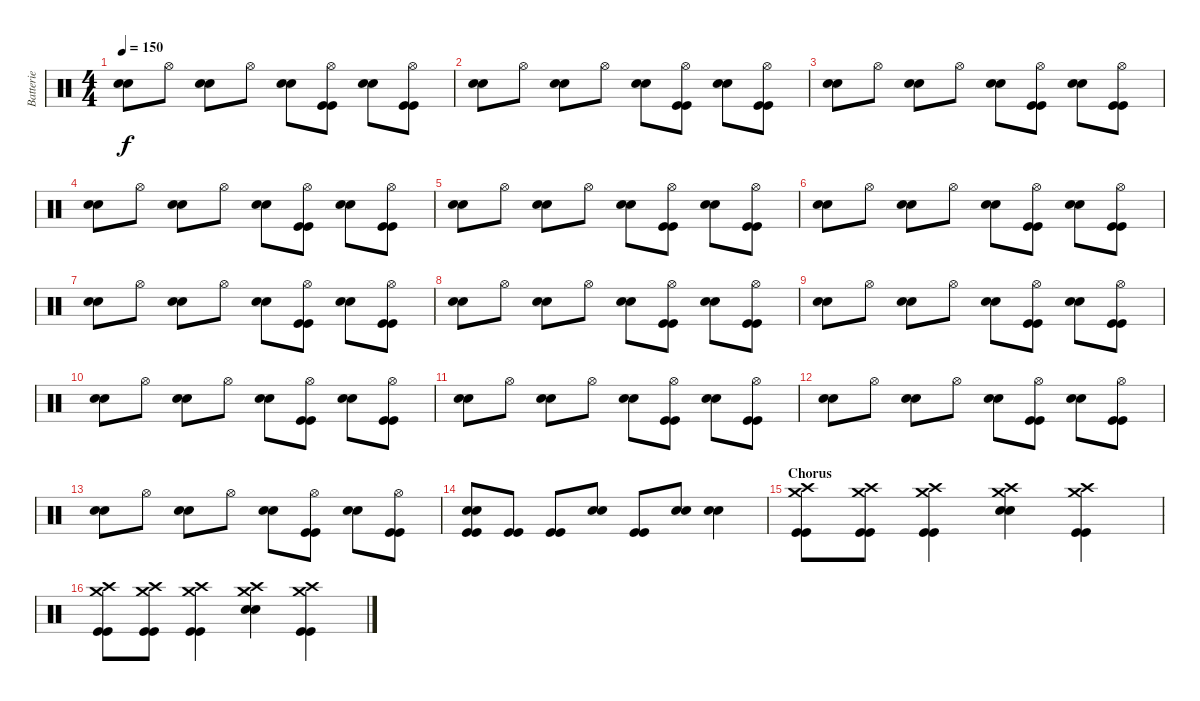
\track ("Batterie" "Batterie") {instrument percussion}
\staff {score}
\articulation defaults
\ts (4 4)
\tempo 150
\clef neutral
\ks c
("Electric Snare (hit)" "Electric Snare (hit)").8{dy f} "Hi-Hat (open)".8 ("Electric Snare (hit)" "Electric Snare (hit)").8 "Hi-Hat (open)".8 ("Electric Snare (hit)" "Electric Snare (hit)").8 ("Hi-Hat (open)" "Kick (hit)" "Kick (hit)").8 ("Electric Snare (hit)" "Electric Snare (hit)").8 ("Hi-Hat (open)" "Kick (hit)" "Kick (hit)").8 |
("Electric Snare (hit)" "Electric Snare (hit)").8 "Hi-Hat (open)".8 ("Electric Snare (hit)" "Electric Snare (hit)").8 "Hi-Hat (open)".8 ("Electric Snare (hit)" "Electric Snare (hit)").8 ("Hi-Hat (open)" "Kick (hit)" "Kick (hit)").8 ("Electric Snare (hit)" "Electric Snare (hit)").8 ("Hi-Hat (open)" "Kick (hit)" "Kick (hit)").8 |
("Electric Snare (hit)" "Electric Snare (hit)").8 "Hi-Hat (open)".8 ("Electric Snare (hit)" "Electric Snare (hit)").8 "Hi-Hat (open)".8 ("Electric Snare (hit)" "Electric Snare (hit)").8 ("Hi-Hat (open)" "Kick (hit)" "Kick (hit)").8 ("Electric Snare (hit)" "Electric Snare (hit)").8 ("Hi-Hat (open)" "Kick (hit)" "Kick (hit)").8 |
("Electric Snare (hit)" "Electric Snare (hit)").8 "Hi-Hat (open)".8 ("Electric Snare (hit)" "Electric Snare (hit)").8 "Hi-Hat (open)".8 ("Electric Snare (hit)" "Electric Snare (hit)").8 ("Hi-Hat (open)" "Kick (hit)" "Kick (hit)").8 ("Electric Snare (hit)" "Electric Snare (hit)").8 ("Hi-Hat (open)" "Kick (hit)" "Kick (hit)").8 |
("Electric Snare (hit)" "Electric Snare (hit)").8 "Hi-Hat (open)".8 ("Electric Snare (hit)" "Electric Snare (hit)").8 "Hi-Hat (open)".8 ("Electric Snare (hit)" "Electric Snare (hit)").8 ("Hi-Hat (open)" "Kick (hit)" "Kick (hit)").8 ("Electric Snare (hit)" "Electric Snare (hit)").8 ("Hi-Hat (open)" "Kick (hit)" "Kick (hit)").8 |
("Electric Snare (hit)" "Electric Snare (hit)").8 "Hi-Hat (open)".8 ("Electric Snare (hit)" "Electric Snare (hit)").8 "Hi-Hat (open)".8 ("Electric Snare (hit)" "Electric Snare (hit)").8 ("Hi-Hat (open)" "Kick (hit)" "Kick (hit)").8 ("Electric Snare (hit)" "Electric Snare (hit)").8 ("Hi-Hat (open)" "Kick (hit)" "Kick (hit)").8 |
("Electric Snare (hit)" "Electric Snare (hit)").8 "Hi-Hat (open)".8 ("Electric Snare (hit)" "Electric Snare (hit)").8 "Hi-Hat (open)".8 ("Electric Snare (hit)" "Electric Snare (hit)").8 ("Hi-Hat (open)" "Kick (hit)" "Kick (hit)").8 ("Electric Snare (hit)" "Electric Snare (hit)").8 ("Hi-Hat (open)" "Kick (hit)" "Kick (hit)").8 |
("Electric Snare (hit)" "Electric Snare (hit)").8 "Hi-Hat (open)".8 ("Electric Snare (hit)" "Electric Snare (hit)").8 "Hi-Hat (open)".8 ("Electric Snare (hit)" "Electric Snare (hit)").8 ("Hi-Hat (open)" "Kick (hit)" "Kick (hit)").8 ("Electric Snare (hit)" "Electric Snare (hit)").8 ("Hi-Hat (open)" "Kick (hit)" "Kick (hit)").8 |
("Electric Snare (hit)" "Electric Snare (hit)").8 "Hi-Hat (open)".8 ("Electric Snare (hit)" "Electric Snare (hit)").8 "Hi-Hat (open)".8 ("Electric Snare (hit)" "Electric Snare (hit)").8 ("Hi-Hat (open)" "Kick (hit)" "Kick (hit)").8 ("Electric Snare (hit)" "Electric Snare (hit)").8 ("Hi-Hat (open)" "Kick (hit)" "Kick (hit)").8 |
("Electric Snare (hit)" "Electric Snare (hit)").8 "Hi-Hat (open)".8 ("Electric Snare (hit)" "Electric Snare (hit)").8 "Hi-Hat (open)".8 ("Electric Snare (hit)" "Electric Snare (hit)").8 ("Hi-Hat (open)" "Kick (hit)" "Kick (hit)").8 ("Electric Snare (hit)" "Electric Snare (hit)").8 ("Hi-Hat (open)" "Kick (hit)" "Kick (hit)").8 |
("Electric Snare (hit)" "Electric Snare (hit)").8 "Hi-Hat (open)".8 ("Electric Snare (hit)" "Electric Snare (hit)").8 "Hi-Hat (open)".8 ("Electric Snare (hit)" "Electric Snare (hit)").8 ("Hi-Hat (open)" "Kick (hit)" "Kick (hit)").8 ("Electric Snare (hit)" "Electric Snare (hit)").8 ("Hi-Hat (open)" "Kick (hit)" "Kick (hit)").8 |
("Electric Snare (hit)" "Electric Snare (hit)").8 "Hi-Hat (open)".8 ("Electric Snare (hit)" "Electric Snare (hit)").8 "Hi-Hat (open)".8 ("Electric Snare (hit)" "Electric Snare (hit)").8 ("Hi-Hat (open)" "Kick (hit)" "Kick (hit)").8 ("Electric Snare (hit)" "Electric Snare (hit)").8 ("Hi-Hat (open)" "Kick (hit)" "Kick (hit)").8 |
("Electric Snare (hit)" "Electric Snare (hit)").8 "Hi-Hat (open)".8 ("Electric Snare (hit)" "Electric Snare (hit)").8 "Hi-Hat (open)".8 ("Electric Snare (hit)" "Electric Snare (hit)").8 ("Hi-Hat (open)" "Kick (hit)" "Kick (hit)").8 ("Electric Snare (hit)" "Electric Snare (hit)").8 ("Hi-Hat (open)" "Kick (hit)" "Kick (hit)").8 |
("Electric Snare (hit)" "Electric Snare (hit)" "Kick (hit)" "Kick (hit)").8 ("Kick (hit)" "Kick (hit)").8 ("Kick (hit)" "Kick (hit)").8 ("Electric Snare (hit)" "Electric Snare (hit)").8 ("Kick (hit)" "Kick (hit)").8 ("Electric Snare (hit)" "Electric Snare (hit)").8 ("Electric Snare (hit)" "Electric Snare (hit)").4 |
\section ("" "Chorus")
("Crash high (hit)" "Crash medium (hit)" "Kick (hit)" "Kick (hit)").8 ("Crash high (hit)" "Crash medium (hit)" "Kick (hit)" "Kick (hit)").8 ("Crash high (hit)" "Crash medium (hit)" "Kick (hit)" "Kick (hit)").4 ("Crash high (hit)" "Crash medium (hit)" "Electric Snare (hit)" "Electric Snare (hit)").4 ("Crash high (hit)" "Crash medium (hit)" "Kick (hit)" "Kick (hit)").4 |
("Crash high (hit)" "Crash medium (hit)" "Kick (hit)" "Kick (hit)").8 ("Crash high (hit)" "Crash medium (hit)" "Kick (hit)" "Kick (hit)").8 ("Crash high (hit)" "Crash medium (hit)" "Kick (hit)" "Kick (hit)").4 ("Crash high (hit)" "Crash medium (hit)" "Electric Snare (hit)" "Electric Snare (hit)").4 ("Crash high (hit)" "Crash medium (hit)" "Kick (hit)" "Kick (hit)").4
